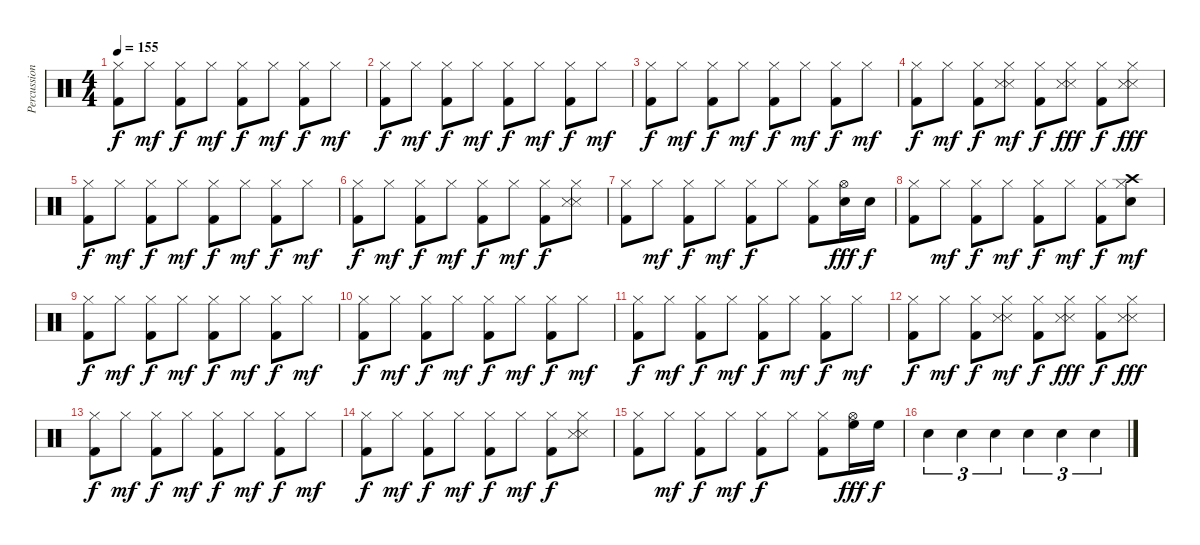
\track ("Percussion" "Percussion") {instrument percussion}
\staff {score}
\articulation defaults
\ts (4 4)
\tempo 155
\clef neutral
\ks c
("Hi-Hat (closed)" "Kick (hit) 2").8{dy f} "Hi-Hat (closed)".8{dy mf} ("Hi-Hat (closed)" "Kick (hit) 2").8{dy f} "Hi-Hat (closed)".8{dy mf} ("Hi-Hat (closed)" "Kick (hit) 2").8{dy f} "Hi-Hat (closed)".8{dy mf} ("Hi-Hat (closed)" "Kick (hit) 2").8{dy f} "Hi-Hat (closed)".8{dy mf} |
("Hi-Hat (closed)" "Kick (hit) 2").8{dy f} "Hi-Hat (closed)".8{dy mf} ("Hi-Hat (closed)" "Kick (hit) 2").8{dy f} "Hi-Hat (closed)".8{dy mf} ("Hi-Hat (closed)" "Kick (hit) 2").8{dy f} "Hi-Hat (closed)".8{dy mf} ("Hi-Hat (closed)" "Kick (hit) 2").8{dy f} "Hi-Hat (closed)".8{dy mf} |
("Hi-Hat (closed)" "Kick (hit) 2").8{dy f} "Hi-Hat (closed)".8{dy mf} ("Hi-Hat (closed)" "Kick (hit) 2").8{dy f} "Hi-Hat (closed)".8{dy mf} ("Hi-Hat (closed)" "Kick (hit) 2").8{dy f} "Hi-Hat (closed)".8{dy mf} ("Hi-Hat (closed)" "Kick (hit) 2").8{dy f} "Hi-Hat (closed)".8{dy mf} |
("Hi-Hat (closed)" "Kick (hit) 2").8{dy f} "Hi-Hat (closed)".8{dy mf} ("Hi-Hat (closed)" "Kick (hit) 2").8{dy f} ("Hi-Hat (closed)" "Snare (side stick) 3" "Snare (side stick) 3").8{dy mf} ("Hi-Hat (closed)" "Kick (hit) 2").8{dy f} ("Hi-Hat (closed)" "Snare (side stick) 3" "Snare (side stick) 3").8{dy fff} ("Hi-Hat (closed)" "Kick (hit) 2").8{dy f} ("Hi-Hat (closed)" "Snare (side stick) 3" "Snare (side stick) 3").8{dy fff} |
("Hi-Hat (closed)" "Kick (hit) 2").8{dy f} "Hi-Hat (closed)".8{dy mf} ("Hi-Hat (closed)" "Kick (hit) 2").8{dy f} "Hi-Hat (closed)".8{dy mf} ("Hi-Hat (closed)" "Kick (hit) 2").8{dy f} "Hi-Hat (closed)".8{dy mf} ("Hi-Hat (closed)" "Kick (hit) 2").8{dy f} "Hi-Hat (closed)".8{dy mf} |
("Hi-Hat (closed)" "Kick (hit) 2").8{dy f} "Hi-Hat (closed)".8{dy mf} ("Hi-Hat (closed)" "Kick (hit) 2").8{dy f} "Hi-Hat (closed)".8{dy mf} ("Hi-Hat (closed)" "Kick (hit) 2").8{dy f} "Hi-Hat (closed)".8{dy mf} ("Hi-Hat (closed)" "Kick (hit) 2").8{dy f} ("Hi-Hat (closed)" "Snare (side stick) 3" "Snare (side stick) 3").8 |
("Hi-Hat (closed)" "Kick (hit) 2").8 "Hi-Hat (closed)".8{dy mf} ("Hi-Hat (closed)" "Kick (hit) 2").8{dy f} "Hi-Hat (closed)".8{dy mf} ("Hi-Hat (closed)" "Kick (hit) 2").8{dy f} "Hi-Hat (closed)".8 ("Hi-Hat (closed)" "Kick (hit) 2").8 ("Hi-Hat (open)" "Snare (hit) 2").16{dy fff} "Snare (hit) 2".16{dy f} |
("Hi-Hat (closed)" "Kick (hit) 2").8 "Hi-Hat (closed)".8{dy mf} ("Hi-Hat (closed)" "Kick (hit) 2").8{dy f} "Hi-Hat (closed)".8{dy mf} ("Hi-Hat (closed)" "Kick (hit) 2").8{dy f} "Hi-Hat (closed)".8{dy mf} ("Hi-Hat (closed)" "Kick (hit) 2").8{dy f} ("Crash high (hit)" "Hi-Hat (closed)" "Snare (hit) 2").8{dy mf} |
("Hi-Hat (closed)" "Kick (hit) 2").8{dy f} "Hi-Hat (closed)".8{dy mf} ("Hi-Hat (closed)" "Kick (hit) 2").8{dy f} "Hi-Hat (closed)".8{dy mf} ("Hi-Hat (closed)" "Kick (hit) 2").8{dy f} "Hi-Hat (closed)".8{dy mf} ("Hi-Hat (closed)" "Kick (hit) 2").8{dy f} "Hi-Hat (closed)".8{dy mf} |
("Hi-Hat (closed)" "Kick (hit) 2").8{dy f} "Hi-Hat (closed)".8{dy mf} ("Hi-Hat (closed)" "Kick (hit) 2").8{dy f} "Hi-Hat (closed)".8{dy mf} ("Hi-Hat (closed)" "Kick (hit) 2").8{dy f} "Hi-Hat (closed)".8{dy mf} ("Hi-Hat (closed)" "Kick (hit) 2").8{dy f} "Hi-Hat (closed)".8{dy mf} |
("Hi-Hat (closed)" "Kick (hit) 2").8{dy f} "Hi-Hat (closed)".8{dy mf} ("Hi-Hat (closed)" "Kick (hit) 2").8{dy f} "Hi-Hat (closed)".8{dy mf} ("Hi-Hat (closed)" "Kick (hit) 2").8{dy f} "Hi-Hat (closed)".8{dy mf} ("Hi-Hat (closed)" "Kick (hit) 2").8{dy f} "Hi-Hat (closed)".8{dy mf} |
("Hi-Hat (closed)" "Kick (hit) 2").8{dy f} "Hi-Hat (closed)".8{dy mf} ("Hi-Hat (closed)" "Kick (hit) 2").8{dy f} ("Hi-Hat (closed)" "Snare (side stick) 3" "Snare (side stick) 3").8{dy mf} ("Hi-Hat (closed)" "Kick (hit) 2").8{dy f} ("Hi-Hat (closed)" "Snare (side stick) 3" "Snare (side stick) 3").8{dy fff} ("Hi-Hat (closed)" "Kick (hit) 2").8{dy f} ("Hi-Hat (closed)" "Snare (side stick) 3" "Snare (side stick) 3").8{dy fff} |
("Hi-Hat (closed)" "Kick (hit) 2").8{dy f} "Hi-Hat (closed)".8{dy mf} ("Hi-Hat (closed)" "Kick (hit) 2").8{dy f} "Hi-Hat (closed)".8{dy mf} ("Hi-Hat (closed)" "Kick (hit) 2").8{dy f} "Hi-Hat (closed)".8{dy mf} ("Hi-Hat (closed)" "Kick (hit) 2").8{dy f} "Hi-Hat (closed)".8{dy mf} |
("Hi-Hat (closed)" "Kick (hit) 2").8{dy f} "Hi-Hat (closed)".8{dy mf} ("Hi-Hat (closed)" "Kick (hit) 2").8{dy f} "Hi-Hat (closed)".8{dy mf} ("Hi-Hat (closed)" "Kick (hit) 2").8{dy f} "Hi-Hat (closed)".8{dy mf} ("Hi-Hat (closed)" "Kick (hit) 2").8{dy f} ("Hi-Hat (closed)" "Snare (side stick) 3" "Snare (side stick) 3").8 |
("Hi-Hat (closed)" "Kick (hit) 2").8 "Hi-Hat (closed)".8{dy mf} ("Hi-Hat (closed)" "Kick (hit) 2").8{dy f} "Hi-Hat (closed)".8{dy mf} ("Hi-Hat (closed)" "Kick (hit) 2").8{dy f} "Hi-Hat (closed)".8 ("Hi-Hat (closed)" "Kick (hit) 2").8 ("Hi-Hat (open)" "High Floor Tom (hit)").16{dy fff} "High Floor Tom (hit)".16{dy f} |
"Snare (hit) 2".4{tu (3 2)} "Snare (hit) 2".4{tu (3 2)} "Snare (hit) 2".4{tu (3 2)} "Snare (hit) 2".4{tu (3 2)} "Snare (hit) 2".4{tu (3 2)} "Snare (hit) 2".4{tu (3 2)}
